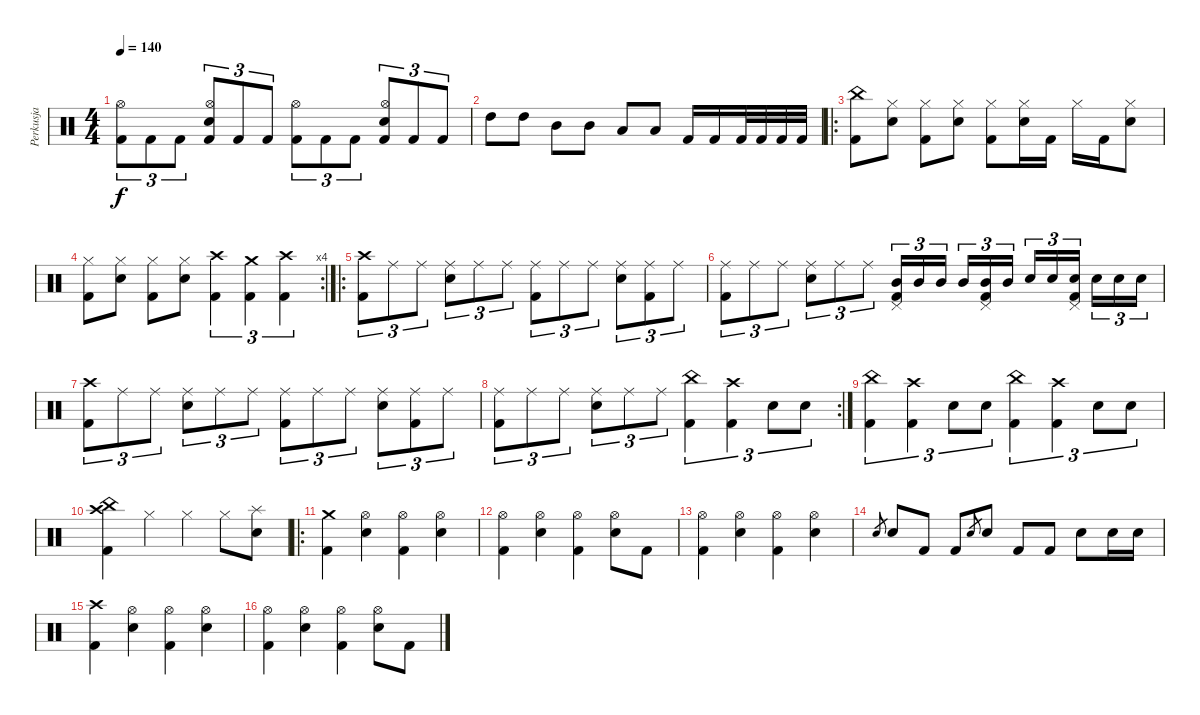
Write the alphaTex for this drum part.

\track ("Perkusja" "Perkusja") {instrument percussion}
\staff {score}
\articulation defaults
\ts (4 4)
\tempo 140
\clef neutral
\ks c
("Kick (hit) 2" "Hi-Hat (open)").8{tu (3 2) dy f} "Kick (hit) 2".8{tu (3 2)} "Kick (hit) 2".8{tu (3 2)} ("Kick (hit) 2" "Snare (hit) 2" "Hi-Hat (open)").8{tu (3 2)} "Kick (hit) 2".8{tu (3 2)} "Kick (hit) 2".8{tu (3 2)} ("Kick (hit) 2" "Hi-Hat (open)").8{tu (3 2)} "Kick (hit) 2".8{tu (3 2)} "Kick (hit) 2".8{tu (3 2)} ("Kick (hit) 2" "Snare (hit) 2" "Hi-Hat (open)").8{tu (3 2)} "Kick (hit) 2".8{tu (3 2)} "Kick (hit) 2".8{tu (3 2)} |
"High Tom (hit)".8 "High Tom (hit)".8 "Mid Tom (hit)".8 "Mid Tom (hit)".8 "Low Tom (hit)".8 "Low Tom (hit)".8 "Kick (hit) 2".16 "Kick (hit) 2".16 "Kick (hit) 2".32 "Kick (hit) 2".32 "Kick (hit) 2".32 "Kick (hit) 2".32 |
\ro
("Kick (hit) 2" "China (hit)").8 ("Snare (hit) 2" "Hi-Hat (closed)").8 ("Kick (hit) 2" "Hi-Hat (closed)").8 ("Snare (hit) 2" "Hi-Hat (closed)").8 ("Kick (hit) 2" "Hi-Hat (closed)").8 ("Snare (hit) 2" "Hi-Hat (closed)").16 "Kick (hit) 2".16 "Hi-Hat (closed)".16 "Kick (hit) 2".16 ("Snare (hit) 2" "Hi-Hat (closed)").8 |
\rc 4
("Kick (hit) 2" "Hi-Hat (closed)").8 ("Snare (hit) 2" "Hi-Hat (closed)").8 ("Kick (hit) 2" "Hi-Hat (closed)").8 ("Snare (hit) 2" "Hi-Hat (closed)").8 ("Kick (hit) 2" "Crash high (hit)").4{tu (3 2)} ("Kick (hit) 2" "Crash medium (hit)").4{tu (3 2)} ("Kick (hit) 2" "Crash high (hit)").4{tu (3 2)} |
\ro
("Kick (hit) 2" "Crash high (hit)").8{tu (3 2)} "Ride (middle)".8{tu (3 2)} "Ride (middle)".8{tu (3 2)} ("Snare (hit) 2" "Ride (middle)").8{tu (3 2)} "Ride (middle)".8{tu (3 2)} "Ride (middle)".8{tu (3 2)} ("Kick (hit) 2" "Ride (middle)").8{tu (3 2)} "Ride (middle)".8{tu (3 2)} "Ride (middle)".8{tu (3 2)} ("Snare (hit) 2" "Ride (middle)").8{tu (3 2)} ("Kick (hit) 2" "Ride (middle)").8{tu (3 2)} "Ride (middle)".8{tu (3 2)} |
("Kick (hit) 2" "Ride (middle)").8{tu (3 2)} "Ride (middle)".8{tu (3 2)} "Ride (middle)".8{tu (3 2)} ("Snare (hit) 2" "Ride (middle)").8{tu (3 2)} "Ride (middle)".8{tu (3 2)} "Ride (middle)".8{tu (3 2)} ("Kick (hit) 2" "Mid Tom (hit)" "Pedal Hi-Hat (hit)").16{tu (3 2)} "Mid Tom (hit)".16{tu (3 2)} "Mid Tom (hit)".16{tu (3 2)} "Mid Tom (hit)".16{tu (3 2)} ("Kick (hit) 2" "Mid Tom (hit)" "Pedal Hi-Hat (hit)").16{tu (3 2)} "Mid Tom (hit)".16{tu (3 2)} "Snare (hit) 2".16{tu (3 2)} "Snare (hit) 2".16{tu (3 2)} ("Kick (hit) 2" "Snare (hit) 2" "Pedal Hi-Hat (hit)").16{tu (3 2)} "Snare (hit) 2".16{tu (3 2)} "Snare (hit) 2".16{tu (3 2)} "Snare (hit) 2".16{tu (3 2)} |
("Kick (hit) 2" "Crash high (hit)").8{tu (3 2)} "Ride (middle)".8{tu (3 2)} "Ride (middle)".8{tu (3 2)} ("Snare (hit) 2" "Ride (middle)").8{tu (3 2)} "Ride (middle)".8{tu (3 2)} "Ride (middle)".8{tu (3 2)} ("Kick (hit) 2" "Ride (middle)").8{tu (3 2)} "Ride (middle)".8{tu (3 2)} "Ride (middle)".8{tu (3 2)} ("Snare (hit) 2" "Ride (middle)").8{tu (3 2)} ("Kick (hit) 2" "Ride (middle)").8{tu (3 2)} "Ride (middle)".8{tu (3 2)} |
\rc 2
("Kick (hit) 2" "Ride (middle)").8{tu (3 2)} "Ride (middle)".8{tu (3 2)} "Ride (middle)".8{tu (3 2)} ("Snare (hit) 2" "Ride (middle)").8{tu (3 2)} "Ride (middle)".8{tu (3 2)} "Ride (middle)".8{tu (3 2)} ("Kick (hit) 2" "China (hit)").4{tu (3 2)} ("Kick (hit) 2" "Crash high (hit)").4{tu (3 2)} "Snare (hit) 2".8{tu (3 2)} "Snare (hit) 2".8{tu (3 2)} |
("Kick (hit) 2" "China (hit)").4{tu (3 2)} ("Kick (hit) 2" "Crash high (hit)").4{tu (3 2)} "Snare (hit) 2".8{tu (3 2)} "Snare (hit) 2".8{tu (3 2)} ("Kick (hit) 2" "China (hit)").4{tu (3 2)} ("Kick (hit) 2" "Crash high (hit)").4{tu (3 2)} "Snare (hit) 2".8{tu (3 2)} "Snare (hit) 2".8{tu (3 2)} |
("Kick (hit) 2" "China (hit)" "Crash high (hit)").4 "Hi-Hat (closed)".4 "Hi-Hat (closed)".4 "Hi-Hat (closed)".8 ("Snare (hit) 2" "Splash (hit)").8 |
\ro
("Kick (hit) 2" "Crash medium (hit)").4 ("Snare (hit) 2" "Hi-Hat (open)").4 ("Kick (hit) 2" "Hi-Hat (open)").4 ("Snare (hit) 2" "Hi-Hat (open)").4 |
("Kick (hit) 2" "Hi-Hat (open)").4 ("Snare (hit) 2" "Hi-Hat (open)").4 ("Kick (hit) 2" "Hi-Hat (open)").4 ("Snare (hit) 2" "Hi-Hat (open)").8 "Kick (hit) 2".8 |
("Kick (hit) 2" "Hi-Hat (open)").4 ("Snare (hit) 2" "Hi-Hat (open)").4 ("Kick (hit) 2" "Hi-Hat (open)").4 ("Snare (hit) 2" "Hi-Hat (open)").4 |
"Snare (hit) 2".8{gr} "Snare (hit) 2".8 "Kick (hit) 2".8 "Kick (hit) 2".8 "Snare (hit) 2".8{gr} "Snare (hit) 2".8 "Kick (hit) 2".8 "Kick (hit) 2".8 "Snare (hit) 2".8 "Snare (hit) 2".16 "Snare (hit) 2".16 |
("Kick (hit) 2" "Crash high (hit)").4 ("Snare (hit) 2" "Hi-Hat (open)").4 ("Kick (hit) 2" "Hi-Hat (open)").4 ("Snare (hit) 2" "Hi-Hat (open)").4 |
("Kick (hit) 2" "Hi-Hat (open)").4 ("Snare (hit) 2" "Hi-Hat (open)").4 ("Kick (hit) 2" "Hi-Hat (open)").4 ("Snare (hit) 2" "Hi-Hat (open)").8 "Kick (hit) 2".8
